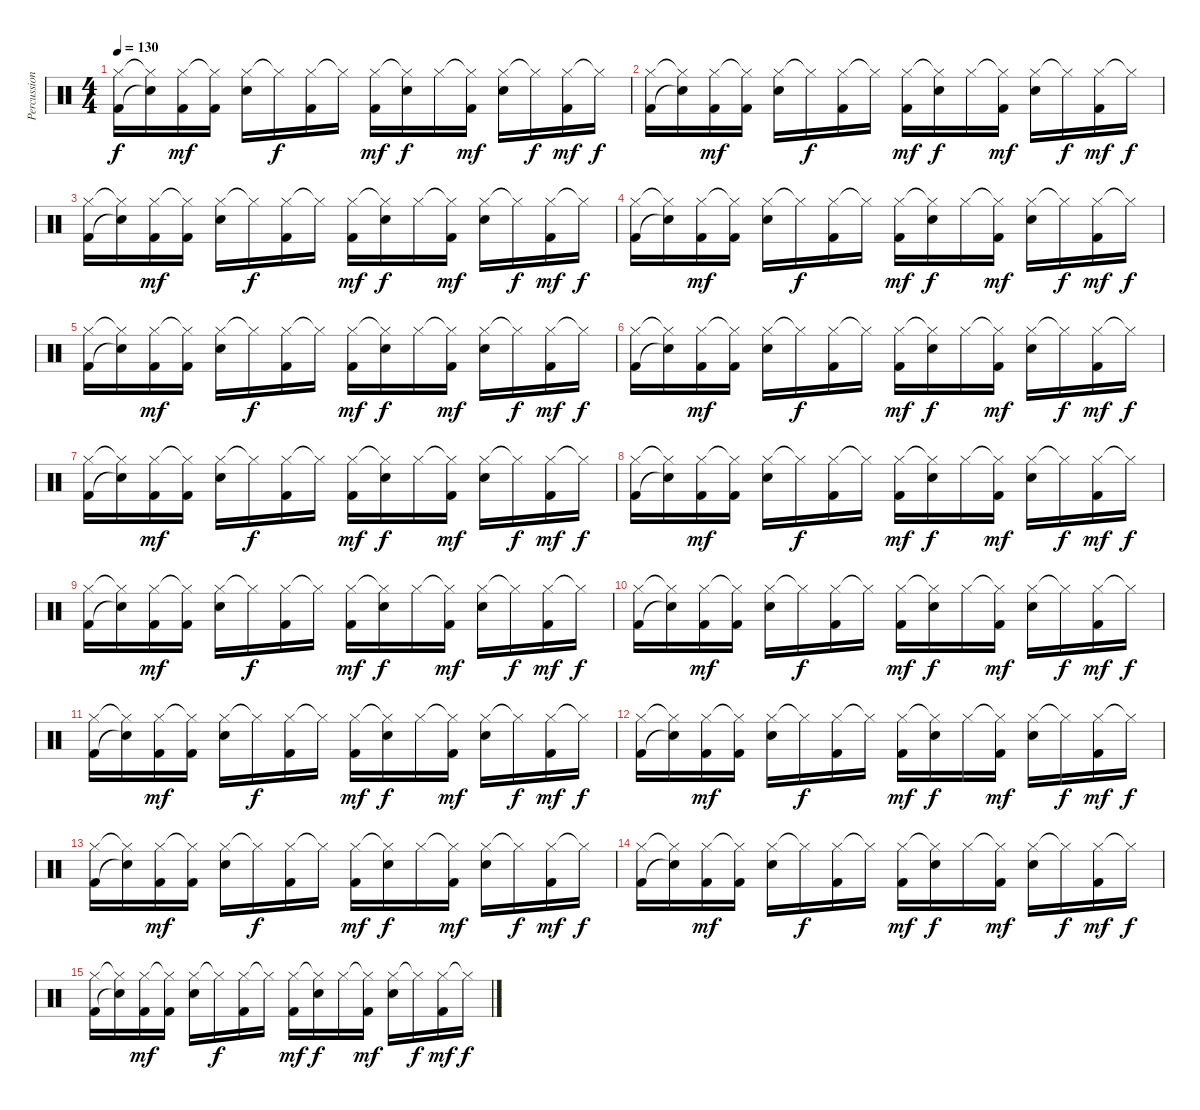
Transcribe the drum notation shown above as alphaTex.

\track ("Percussion" "Percussion") {instrument percussion}
\staff {score}
\articulation defaults
\ts (4 4)
\tempo 130
\clef neutral
\ks c
("Hi-Hat (closed)" "Kick (hit) 2").16{dy f} ("Hi-Hat (closed)"{t} "Snare (hit)"{t}).16 ("Hi-Hat (closed)" "Kick (hit) 2").16{dy mf} ("Hi-Hat (closed)"{t} "Kick (hit) 2").16 ("Hi-Hat (closed)" "Snare (hit) 2").16 "Hi-Hat (closed)"{t}.16{dy f} ("Hi-Hat (closed)" "Kick (hit) 2").16 "Hi-Hat (closed)"{t}.16 ("Hi-Hat (closed)" "Kick (hit) 2").16{dy mf} ("Hi-Hat (closed)"{t} "Snare (hit) 2").16{dy f} "Hi-Hat (closed)".16 ("Hi-Hat (closed)"{t} "Kick (hit) 2").16{dy mf} ("Hi-Hat (closed)" "Snare (hit) 2").16 "Hi-Hat (closed)"{t}.16{dy f} ("Hi-Hat (closed)" "Kick (hit) 2").16{dy mf} "Hi-Hat (closed)"{t}.16{dy f} |
("Hi-Hat (closed)" "Kick (hit) 2").16 ("Hi-Hat (closed)"{t} "Snare (hit)"{t}).16 ("Hi-Hat (closed)" "Kick (hit) 2").16{dy mf} ("Hi-Hat (closed)"{t} "Kick (hit) 2").16 ("Hi-Hat (closed)" "Snare (hit) 2").16 "Hi-Hat (closed)"{t}.16{dy f} ("Hi-Hat (closed)" "Kick (hit) 2").16 "Hi-Hat (closed)"{t}.16 ("Hi-Hat (closed)" "Kick (hit) 2").16{dy mf} ("Hi-Hat (closed)"{t} "Snare (hit) 2").16{dy f} "Hi-Hat (closed)".16 ("Hi-Hat (closed)"{t} "Kick (hit) 2").16{dy mf} ("Hi-Hat (closed)" "Snare (hit) 2").16 "Hi-Hat (closed)"{t}.16{dy f} ("Hi-Hat (closed)" "Kick (hit) 2").16{dy mf} "Hi-Hat (closed)"{t}.16{dy f} |
("Hi-Hat (closed)" "Kick (hit) 2").16 ("Hi-Hat (closed)"{t} "Snare (hit)"{t}).16 ("Hi-Hat (closed)" "Kick (hit) 2").16{dy mf} ("Hi-Hat (closed)"{t} "Kick (hit) 2").16 ("Hi-Hat (closed)" "Snare (hit) 2").16 "Hi-Hat (closed)"{t}.16{dy f} ("Hi-Hat (closed)" "Kick (hit) 2").16 "Hi-Hat (closed)"{t}.16 ("Hi-Hat (closed)" "Kick (hit) 2").16{dy mf} ("Hi-Hat (closed)"{t} "Snare (hit) 2").16{dy f} "Hi-Hat (closed)".16 ("Hi-Hat (closed)"{t} "Kick (hit) 2").16{dy mf} ("Hi-Hat (closed)" "Snare (hit) 2").16 "Hi-Hat (closed)"{t}.16{dy f} ("Hi-Hat (closed)" "Kick (hit) 2").16{dy mf} "Hi-Hat (closed)"{t}.16{dy f} |
("Hi-Hat (closed)" "Kick (hit) 2").16 ("Hi-Hat (closed)"{t} "Snare (hit)"{t}).16 ("Hi-Hat (closed)" "Kick (hit) 2").16{dy mf} ("Hi-Hat (closed)"{t} "Kick (hit) 2").16 ("Hi-Hat (closed)" "Snare (hit) 2").16 "Hi-Hat (closed)"{t}.16{dy f} ("Hi-Hat (closed)" "Kick (hit) 2").16 "Hi-Hat (closed)"{t}.16 ("Hi-Hat (closed)" "Kick (hit) 2").16{dy mf} ("Hi-Hat (closed)"{t} "Snare (hit) 2").16{dy f} "Hi-Hat (closed)".16 ("Hi-Hat (closed)"{t} "Kick (hit) 2").16{dy mf} ("Hi-Hat (closed)" "Snare (hit) 2").16 "Hi-Hat (closed)"{t}.16{dy f} ("Hi-Hat (closed)" "Kick (hit) 2").16{dy mf} "Hi-Hat (closed)"{t}.16{dy f} |
("Hi-Hat (closed)" "Kick (hit) 2").16 ("Hi-Hat (closed)"{t} "Snare (hit)"{t}).16 ("Hi-Hat (closed)" "Kick (hit) 2").16{dy mf} ("Hi-Hat (closed)"{t} "Kick (hit) 2").16 ("Hi-Hat (closed)" "Snare (hit) 2").16 "Hi-Hat (closed)"{t}.16{dy f} ("Hi-Hat (closed)" "Kick (hit) 2").16 "Hi-Hat (closed)"{t}.16 ("Hi-Hat (closed)" "Kick (hit) 2").16{dy mf} ("Hi-Hat (closed)"{t} "Snare (hit) 2").16{dy f} "Hi-Hat (closed)".16 ("Hi-Hat (closed)"{t} "Kick (hit) 2").16{dy mf} ("Hi-Hat (closed)" "Snare (hit) 2").16 "Hi-Hat (closed)"{t}.16{dy f} ("Hi-Hat (closed)" "Kick (hit) 2").16{dy mf} "Hi-Hat (closed)"{t}.16{dy f} |
("Hi-Hat (closed)" "Kick (hit) 2").16 ("Hi-Hat (closed)"{t} "Snare (hit)"{t}).16 ("Hi-Hat (closed)" "Kick (hit) 2").16{dy mf} ("Hi-Hat (closed)"{t} "Kick (hit) 2").16 ("Hi-Hat (closed)" "Snare (hit) 2").16 "Hi-Hat (closed)"{t}.16{dy f} ("Hi-Hat (closed)" "Kick (hit) 2").16 "Hi-Hat (closed)"{t}.16 ("Hi-Hat (closed)" "Kick (hit) 2").16{dy mf} ("Hi-Hat (closed)"{t} "Snare (hit) 2").16{dy f} "Hi-Hat (closed)".16 ("Hi-Hat (closed)"{t} "Kick (hit) 2").16{dy mf} ("Hi-Hat (closed)" "Snare (hit) 2").16 "Hi-Hat (closed)"{t}.16{dy f} ("Hi-Hat (closed)" "Kick (hit) 2").16{dy mf} "Hi-Hat (closed)"{t}.16{dy f} |
("Hi-Hat (closed)" "Kick (hit) 2").16 ("Hi-Hat (closed)"{t} "Snare (hit)"{t}).16 ("Hi-Hat (closed)" "Kick (hit) 2").16{dy mf} ("Hi-Hat (closed)"{t} "Kick (hit) 2").16 ("Hi-Hat (closed)" "Snare (hit) 2").16 "Hi-Hat (closed)"{t}.16{dy f} ("Hi-Hat (closed)" "Kick (hit) 2").16 "Hi-Hat (closed)"{t}.16 ("Hi-Hat (closed)" "Kick (hit) 2").16{dy mf} ("Hi-Hat (closed)"{t} "Snare (hit) 2").16{dy f} "Hi-Hat (closed)".16 ("Hi-Hat (closed)"{t} "Kick (hit) 2").16{dy mf} ("Hi-Hat (closed)" "Snare (hit) 2").16 "Hi-Hat (closed)"{t}.16{dy f} ("Hi-Hat (closed)" "Kick (hit) 2").16{dy mf} "Hi-Hat (closed)"{t}.16{dy f} |
("Hi-Hat (closed)" "Kick (hit) 2").16 ("Hi-Hat (closed)"{t} "Snare (hit)"{t}).16 ("Hi-Hat (closed)" "Kick (hit) 2").16{dy mf} ("Hi-Hat (closed)"{t} "Kick (hit) 2").16 ("Hi-Hat (closed)" "Snare (hit) 2").16 "Hi-Hat (closed)"{t}.16{dy f} ("Hi-Hat (closed)" "Kick (hit) 2").16 "Hi-Hat (closed)"{t}.16 ("Hi-Hat (closed)" "Kick (hit) 2").16{dy mf} ("Hi-Hat (closed)"{t} "Snare (hit) 2").16{dy f} "Hi-Hat (closed)".16 ("Hi-Hat (closed)"{t} "Kick (hit) 2").16{dy mf} ("Hi-Hat (closed)" "Snare (hit) 2").16 "Hi-Hat (closed)"{t}.16{dy f} ("Hi-Hat (closed)" "Kick (hit) 2").16{dy mf} "Hi-Hat (closed)"{t}.16{dy f} |
("Hi-Hat (closed)" "Kick (hit) 2").16 ("Hi-Hat (closed)"{t} "Snare (hit)"{t}).16 ("Hi-Hat (closed)" "Kick (hit) 2").16{dy mf} ("Hi-Hat (closed)"{t} "Kick (hit) 2").16 ("Hi-Hat (closed)" "Snare (hit) 2").16 "Hi-Hat (closed)"{t}.16{dy f} ("Hi-Hat (closed)" "Kick (hit) 2").16 "Hi-Hat (closed)"{t}.16 ("Hi-Hat (closed)" "Kick (hit) 2").16{dy mf} ("Hi-Hat (closed)"{t} "Snare (hit) 2").16{dy f} "Hi-Hat (closed)".16 ("Hi-Hat (closed)"{t} "Kick (hit) 2").16{dy mf} ("Hi-Hat (closed)" "Snare (hit) 2").16 "Hi-Hat (closed)"{t}.16{dy f} ("Hi-Hat (closed)" "Kick (hit) 2").16{dy mf} "Hi-Hat (closed)"{t}.16{dy f} |
("Hi-Hat (closed)" "Kick (hit) 2").16 ("Hi-Hat (closed)"{t} "Snare (hit)"{t}).16 ("Hi-Hat (closed)" "Kick (hit) 2").16{dy mf} ("Hi-Hat (closed)"{t} "Kick (hit) 2").16 ("Hi-Hat (closed)" "Snare (hit) 2").16 "Hi-Hat (closed)"{t}.16{dy f} ("Hi-Hat (closed)" "Kick (hit) 2").16 "Hi-Hat (closed)"{t}.16 ("Hi-Hat (closed)" "Kick (hit) 2").16{dy mf} ("Hi-Hat (closed)"{t} "Snare (hit) 2").16{dy f} "Hi-Hat (closed)".16 ("Hi-Hat (closed)"{t} "Kick (hit) 2").16{dy mf} ("Hi-Hat (closed)" "Snare (hit) 2").16 "Hi-Hat (closed)"{t}.16{dy f} ("Hi-Hat (closed)" "Kick (hit) 2").16{dy mf} "Hi-Hat (closed)"{t}.16{dy f} |
("Hi-Hat (closed)" "Kick (hit) 2").16 ("Hi-Hat (closed)"{t} "Snare (hit)"{t}).16 ("Hi-Hat (closed)" "Kick (hit) 2").16{dy mf} ("Hi-Hat (closed)"{t} "Kick (hit) 2").16 ("Hi-Hat (closed)" "Snare (hit) 2").16 "Hi-Hat (closed)"{t}.16{dy f} ("Hi-Hat (closed)" "Kick (hit) 2").16 "Hi-Hat (closed)"{t}.16 ("Hi-Hat (closed)" "Kick (hit) 2").16{dy mf} ("Hi-Hat (closed)"{t} "Snare (hit) 2").16{dy f} "Hi-Hat (closed)".16 ("Hi-Hat (closed)"{t} "Kick (hit) 2").16{dy mf} ("Hi-Hat (closed)" "Snare (hit) 2").16 "Hi-Hat (closed)"{t}.16{dy f} ("Hi-Hat (closed)" "Kick (hit) 2").16{dy mf} "Hi-Hat (closed)"{t}.16{dy f} |
("Hi-Hat (closed)" "Kick (hit) 2").16 ("Hi-Hat (closed)"{t} "Snare (hit)"{t}).16 ("Hi-Hat (closed)" "Kick (hit) 2").16{dy mf} ("Hi-Hat (closed)"{t} "Kick (hit) 2").16 ("Hi-Hat (closed)" "Snare (hit) 2").16 "Hi-Hat (closed)"{t}.16{dy f} ("Hi-Hat (closed)" "Kick (hit) 2").16 "Hi-Hat (closed)"{t}.16 ("Hi-Hat (closed)" "Kick (hit) 2").16{dy mf} ("Hi-Hat (closed)"{t} "Snare (hit) 2").16{dy f} "Hi-Hat (closed)".16 ("Hi-Hat (closed)"{t} "Kick (hit) 2").16{dy mf} ("Hi-Hat (closed)" "Snare (hit) 2").16 "Hi-Hat (closed)"{t}.16{dy f} ("Hi-Hat (closed)" "Kick (hit) 2").16{dy mf} "Hi-Hat (closed)"{t}.16{dy f} |
("Hi-Hat (closed)" "Kick (hit) 2").16 ("Hi-Hat (closed)"{t} "Snare (hit)"{t}).16 ("Hi-Hat (closed)" "Kick (hit) 2").16{dy mf} ("Hi-Hat (closed)"{t} "Kick (hit) 2").16 ("Hi-Hat (closed)" "Snare (hit) 2").16 "Hi-Hat (closed)"{t}.16{dy f} ("Hi-Hat (closed)" "Kick (hit) 2").16 "Hi-Hat (closed)"{t}.16 ("Hi-Hat (closed)" "Kick (hit) 2").16{dy mf} ("Hi-Hat (closed)"{t} "Snare (hit) 2").16{dy f} "Hi-Hat (closed)".16 ("Hi-Hat (closed)"{t} "Kick (hit) 2").16{dy mf} ("Hi-Hat (closed)" "Snare (hit) 2").16 "Hi-Hat (closed)"{t}.16{dy f} ("Hi-Hat (closed)" "Kick (hit) 2").16{dy mf} "Hi-Hat (closed)"{t}.16{dy f} |
("Hi-Hat (closed)" "Kick (hit) 2").16 ("Hi-Hat (closed)"{t} "Snare (hit)"{t}).16 ("Hi-Hat (closed)" "Kick (hit) 2").16{dy mf} ("Hi-Hat (closed)"{t} "Kick (hit) 2").16 ("Hi-Hat (closed)" "Snare (hit) 2").16 "Hi-Hat (closed)"{t}.16{dy f} ("Hi-Hat (closed)" "Kick (hit) 2").16 "Hi-Hat (closed)"{t}.16 ("Hi-Hat (closed)" "Kick (hit) 2").16{dy mf} ("Hi-Hat (closed)"{t} "Snare (hit) 2").16{dy f} "Hi-Hat (closed)".16 ("Hi-Hat (closed)"{t} "Kick (hit) 2").16{dy mf} ("Hi-Hat (closed)" "Snare (hit) 2").16 "Hi-Hat (closed)"{t}.16{dy f} ("Hi-Hat (closed)" "Kick (hit) 2").16{dy mf} "Hi-Hat (closed)"{t}.16{dy f} |
("Hi-Hat (closed)" "Kick (hit) 2").16 ("Hi-Hat (closed)"{t} "Snare (hit)"{t}).16 ("Hi-Hat (closed)" "Kick (hit) 2").16{dy mf} ("Hi-Hat (closed)"{t} "Kick (hit) 2").16 ("Hi-Hat (closed)" "Snare (hit) 2").16 "Hi-Hat (closed)"{t}.16{dy f} ("Hi-Hat (closed)" "Kick (hit) 2").16 "Hi-Hat (closed)"{t}.16 ("Hi-Hat (closed)" "Kick (hit) 2").16{dy mf} ("Hi-Hat (closed)"{t} "Snare (hit) 2").16{dy f} "Hi-Hat (closed)".16 ("Hi-Hat (closed)"{t} "Kick (hit) 2").16{dy mf} ("Hi-Hat (closed)" "Snare (hit) 2").16 "Hi-Hat (closed)"{t}.16{dy f} ("Hi-Hat (closed)" "Kick (hit) 2").16{dy mf} "Hi-Hat (closed)"{t}.16{dy f}
